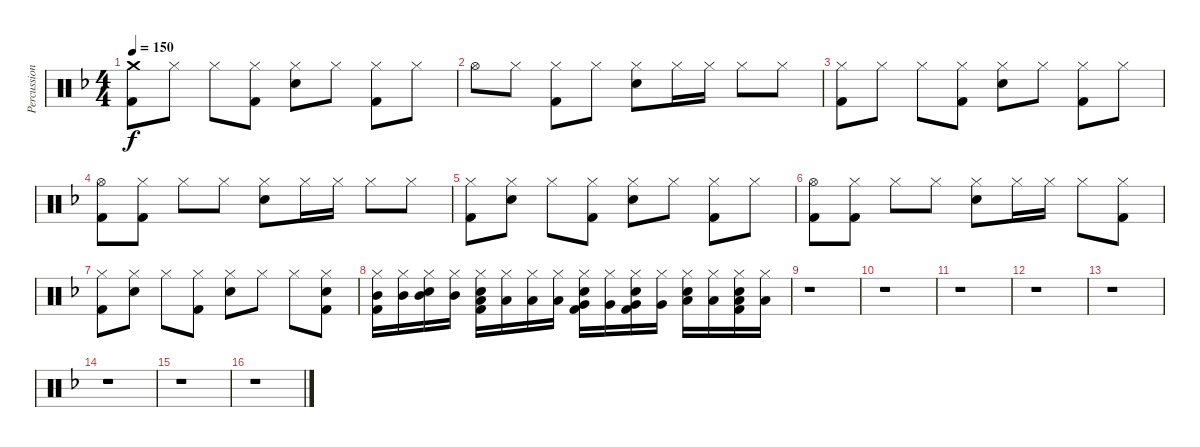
\track ("Percussion" "Percussion") {instrument percussion}
\staff {score}
\articulation defaults
\ts (4 4)
\tempo 150
\clef neutral
\ks f
("Crash medium (hit)" "Kick (hit) 2").8{dy f} "Hi-Hat (closed)".8 "Hi-Hat (closed)".8 ("Hi-Hat (closed)" "Kick (hit) 2").8 ("Hi-Hat (closed)" "Electric Snare (hit)").8 "Hi-Hat (closed)".8 ("Hi-Hat (closed)" "Kick (hit) 2").8 "Hi-Hat (closed)".8 |
"Hi-Hat (open)".8 "Hi-Hat (closed)".8 ("Hi-Hat (closed)" "Kick (hit) 2").8 "Hi-Hat (closed)".8 ("Hi-Hat (closed)" "Electric Snare (hit)").8 "Hi-Hat (closed)".16 "Hi-Hat (closed)".16 "Hi-Hat (closed)".8 "Hi-Hat (closed)".8 |
("Hi-Hat (closed)" "Kick (hit) 2").8 "Hi-Hat (closed)".8 "Hi-Hat (closed)".8 ("Hi-Hat (closed)" "Kick (hit) 2").8 ("Hi-Hat (closed)" "Electric Snare (hit)").8 "Hi-Hat (closed)".8 ("Hi-Hat (closed)" "Kick (hit) 2").8 "Hi-Hat (closed)".8 |
("Hi-Hat (open)" "Kick (hit) 2").8 ("Hi-Hat (closed)" "Kick (hit) 2").8 "Hi-Hat (closed)".8 "Hi-Hat (closed)".8 ("Hi-Hat (closed)" "Electric Snare (hit)").8 "Hi-Hat (closed)".16 "Hi-Hat (closed)".16 "Hi-Hat (closed)".8 "Hi-Hat (closed)".8 |
("Hi-Hat (closed)" "Kick (hit) 2").8 ("Hi-Hat (closed)" "Electric Snare (hit)").8 "Hi-Hat (closed)".8 ("Hi-Hat (closed)" "Kick (hit) 2").8 ("Hi-Hat (closed)" "Electric Snare (hit)").8 "Hi-Hat (closed)".8 ("Hi-Hat (closed)" "Kick (hit) 2").8 "Hi-Hat (closed)".8 |
("Hi-Hat (open)" "Kick (hit) 2").8 ("Hi-Hat (closed)" "Kick (hit) 2").8 "Hi-Hat (closed)".8 "Hi-Hat (closed)".8 ("Hi-Hat (closed)" "Electric Snare (hit)").8 "Hi-Hat (closed)".16 "Hi-Hat (closed)".16 "Hi-Hat (closed)".8 ("Hi-Hat (closed)" "Kick (hit) 2").8 |
("Hi-Hat (closed)" "Kick (hit) 2").8 ("Hi-Hat (closed)" "Electric Snare (hit)").8 "Hi-Hat (closed)".8 ("Hi-Hat (closed)" "Kick (hit) 2").8 ("Hi-Hat (closed)" "Electric Snare (hit)").8 "Hi-Hat (closed)".8 "Hi-Hat (closed)".8 ("Hi-Hat (closed)" "Electric Snare (hit)" "Kick (hit) 2").8 |
("Hi-Hat (closed)" "Mid Tom (hit)" "Kick (hit) 2").16 ("Hi-Hat (closed)" "Mid Tom (hit)").16 ("Hi-Hat (closed)" "Mid Tom (hit)" "Electric Snare (hit)").16 ("Hi-Hat (closed)" "Mid Tom (hit)").16 ("Hi-Hat (closed)" "Low Tom (hit)" "Electric Snare (hit)" "Kick (hit) 2").16 ("Hi-Hat (closed)" "Low Tom (hit)").16 ("Hi-Hat (closed)" "Low Tom (hit)").16 ("Hi-Hat (closed)" "Low Tom (hit)").16 ("Hi-Hat (closed)" "Very Low Tom (hit)" "Electric Snare (hit)" "Kick (hit) 2").16 ("Hi-Hat (closed)" "Very Low Tom (hit)").16 ("Hi-Hat (closed)" "Very Low Tom (hit)" "Electric Snare (hit)" "Kick (hit) 2").16 ("Hi-Hat (closed)" "Very Low Tom (hit)").16 ("Hi-Hat (closed)" "Low Floor Tom (hit)" "Electric Snare (hit)").16 ("Hi-Hat (closed)" "Low Floor Tom (hit)").16 ("Hi-Hat (closed)" "Low Floor Tom (hit)" "Electric Snare (hit)" "Kick (hit) 2").16 ("Hi-Hat (closed)" "Low Floor Tom (hit)").16 |
r.1 |
r.1 |
r.1 |
r.1 |
r.1 |
r.1 |
r.1 |
r.1
